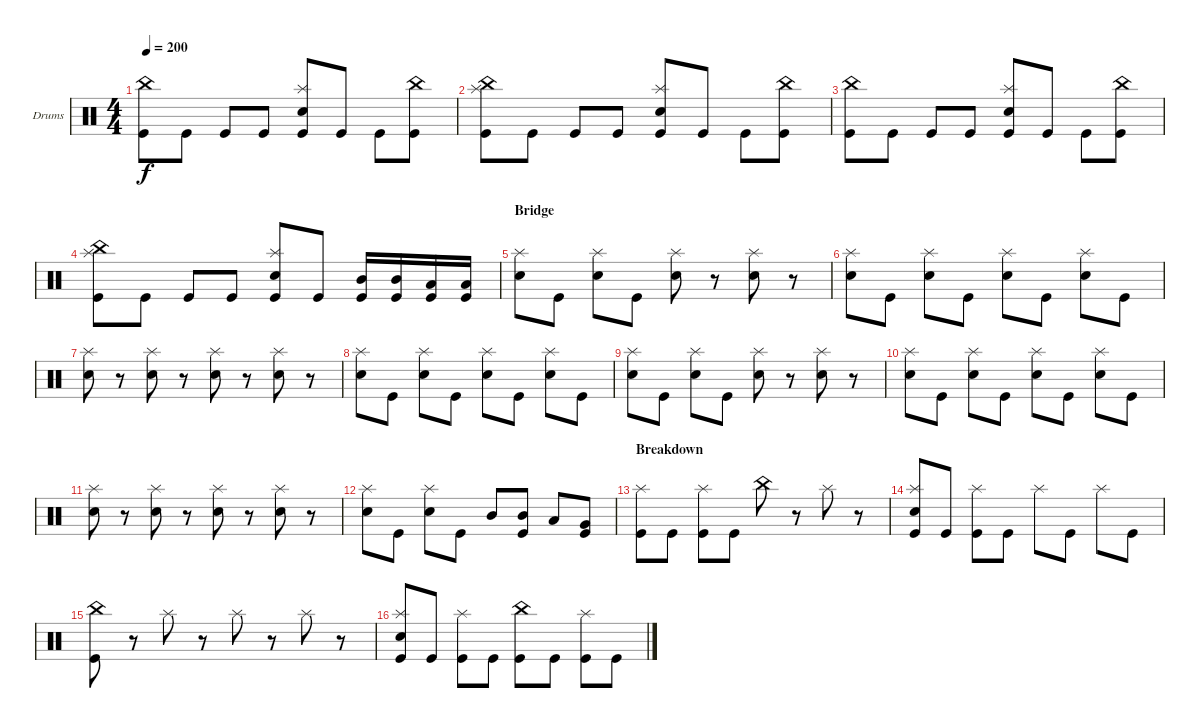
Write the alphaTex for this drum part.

\defaultSystemsLayout 4
\bracketExtendMode groupsimilarinstruments
\firstSystemTrackNameOrientation horizontal
\otherSystemsTrackNameOrientation horizontal
\track ("Drumkit" "Drums") {instrument percussion}
\staff {score}
\articulation defaults
\ts (4 4)
\tempo 200
\clef neutral
\ks c
("Kick (hit)" "China (hit)").8{dy f} "Kick (hit)".8 "Kick (hit)".8 "Kick (hit)".8 ("Kick (hit)" "Splash (hit)" "Snare (hit) 2").8 "Kick (hit)".8 "Kick (hit)".8 ("Kick (hit)" "China (hit)").8 |
("Kick (hit)" "Splash (hit)" "China (hit)").8 "Kick (hit)".8 "Kick (hit)".8 "Kick (hit)".8 ("Kick (hit)" "Splash (hit)" "Snare (hit) 2").8 "Kick (hit)".8 "Kick (hit)".8 ("Kick (hit)" "China (hit)").8 |
("Kick (hit)" "China (hit)").8 "Kick (hit)".8 "Kick (hit)".8 "Kick (hit)".8 ("Kick (hit)" "Splash (hit)" "Snare (hit) 2").8 "Kick (hit)".8 "Kick (hit)".8 ("Kick (hit)" "China (hit)").8 |
("Kick (hit)" "Splash (hit)" "China (hit)").8 "Kick (hit)".8 "Kick (hit)".8 "Kick (hit)".8 ("Kick (hit)" "Splash (hit)" "Snare (hit) 2").8 "Kick (hit)".8 ("Kick (hit)" "Mid Tom (hit)").16 ("Kick (hit)" "Mid Tom (hit)").16 ("Low Tom (hit)" "Kick (hit)").16 ("Low Tom (hit)" "Kick (hit)").16 |
\section ("" "Bridge")
("Snare (hit) 2" "Splash (hit)").8 "Kick (hit)".8 ("Splash (hit)" "Snare (hit) 2").8 "Kick (hit)".8 ("Snare (hit) 2" "Splash (hit)").8 r.8 ("Snare (hit) 2" "Splash (hit)").8 r.8 |
("Snare (hit) 2" "Splash (hit)").8 "Kick (hit)".8 ("Splash (hit)" "Snare (hit) 2").8 "Kick (hit)".8 ("Snare (hit) 2" "Splash (hit)").8 "Kick (hit)".8 ("Snare (hit) 2" "Splash (hit)").8 "Kick (hit)".8 |
("Snare (hit) 2" "Splash (hit)").8 r.8 ("Snare (hit) 2" "Splash (hit)").8 r.8 ("Snare (hit) 2" "Splash (hit)").8 r.8 ("Snare (hit) 2" "Splash (hit)").8 r.8 |
("Snare (hit) 2" "Splash (hit)").8 "Kick (hit)".8 ("Splash (hit)" "Snare (hit) 2").8 "Kick (hit)".8 ("Snare (hit) 2" "Splash (hit)").8 "Kick (hit)".8 ("Snare (hit) 2" "Splash (hit)").8 "Kick (hit)".8 |
("Snare (hit) 2" "Splash (hit)").8 "Kick (hit)".8 ("Splash (hit)" "Snare (hit) 2").8 "Kick (hit)".8 ("Snare (hit) 2" "Splash (hit)").8 r.8 ("Snare (hit) 2" "Splash (hit)").8 r.8 |
("Snare (hit) 2" "Splash (hit)").8 "Kick (hit)".8 ("Splash (hit)" "Snare (hit) 2").8 "Kick (hit)".8 ("Snare (hit) 2" "Splash (hit)").8 "Kick (hit)".8 ("Snare (hit) 2" "Splash (hit)").8 "Kick (hit)".8 |
("Snare (hit) 2" "Splash (hit)").8 r.8 ("Snare (hit) 2" "Splash (hit)").8 r.8 ("Snare (hit) 2" "Splash (hit)").8 r.8 ("Snare (hit) 2" "Splash (hit)").8 r.8 |
("Snare (hit) 2" "Splash (hit)").8 "Kick (hit)".8 ("Splash (hit)" "Snare (hit) 2").8 "Kick (hit)".8 "Mid Tom (hit)".8 ("Kick (hit)" "Mid Tom (hit)").8 "Low Tom (hit)".8 ("Kick (hit)" "Very Low Tom (hit)").8 |
\section ("" "Breakdown")
("Kick (hit)" "Splash (hit)").8 "Kick (hit)".8 ("Kick (hit)" "Splash (hit)").8 "Kick (hit)".8 "China (hit)".8 r.8 "Splash (hit)".8 r.8 |
("Kick (hit)" "Splash (hit)" "Snare (hit) 2").8 "Kick (hit)".8 ("Kick (hit)" "Splash (hit)").8 "Kick (hit)".8 "Splash (hit)".8 "Kick (hit)".8 "Splash (hit)".8 "Kick (hit)".8 |
("Kick (hit)" "China (hit)").8 r.8 "Splash (hit)".8 r.8 "Splash (hit)".8 r.8 "Splash (hit)".8 r.8 |
("Kick (hit)" "Splash (hit)" "Snare (hit) 2").8 "Kick (hit)".8 ("Kick (hit)" "Splash (hit)").8 "Kick (hit)".8 ("Kick (hit)" "China (hit)").8 "Kick (hit)".8 ("Kick (hit)" "Splash (hit)").8 "Kick (hit)".8
